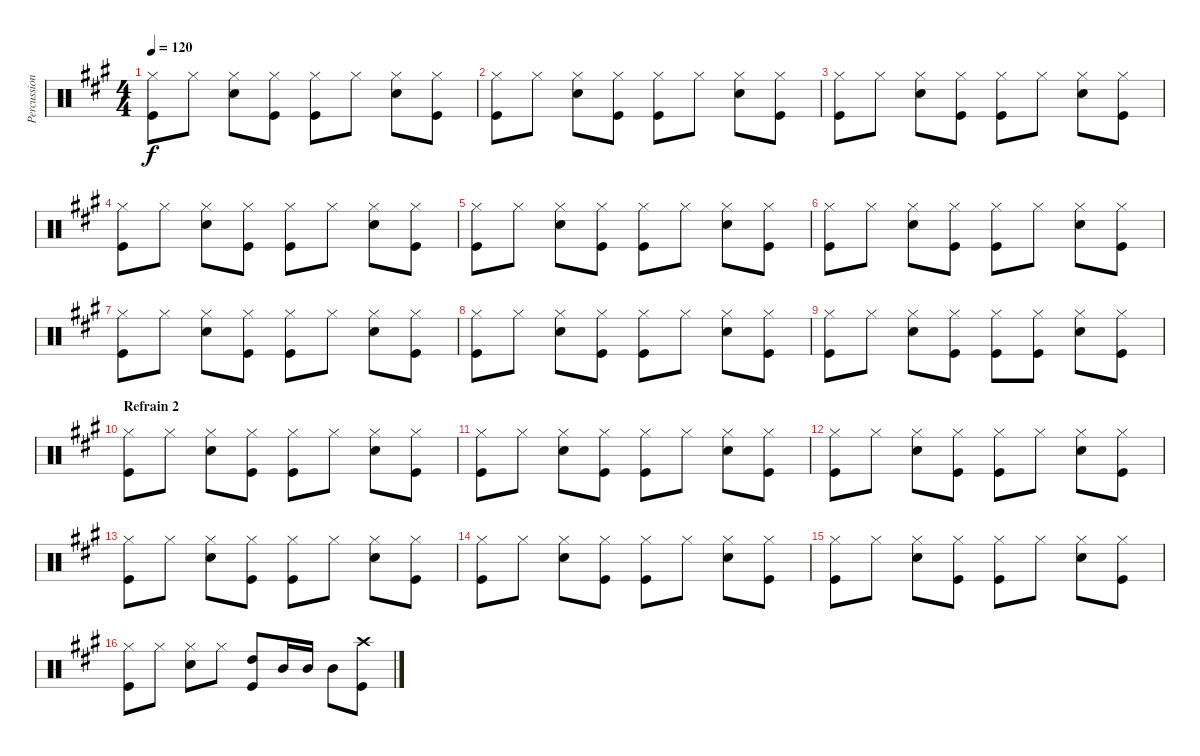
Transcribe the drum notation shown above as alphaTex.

\track ("Percussion" "Percussion") {instrument percussion}
\staff {score}
\articulation defaults
\ts (4 4)
\tempo 120
\clef neutral
\ks a
("Hi-Hat (closed)" "Kick (hit)").8{dy f} "Hi-Hat (closed)".8 ("Hi-Hat (closed)" "Snare (hit) 2").8 ("Hi-Hat (closed)" "Kick (hit)").8 ("Hi-Hat (closed)" "Kick (hit)").8 "Hi-Hat (closed)".8 ("Hi-Hat (closed)" "Snare (hit) 2").8 ("Hi-Hat (closed)" "Kick (hit)").8 |
("Hi-Hat (closed)" "Kick (hit)").8 "Hi-Hat (closed)".8 ("Hi-Hat (closed)" "Snare (hit) 2").8 ("Hi-Hat (closed)" "Kick (hit)").8 ("Hi-Hat (closed)" "Kick (hit)").8 "Hi-Hat (closed)".8 ("Hi-Hat (closed)" "Snare (hit) 2").8 ("Hi-Hat (closed)" "Kick (hit)").8 |
("Hi-Hat (closed)" "Kick (hit)").8 "Hi-Hat (closed)".8 ("Hi-Hat (closed)" "Snare (hit) 2").8 ("Hi-Hat (closed)" "Kick (hit)").8 ("Hi-Hat (closed)" "Kick (hit)").8 "Hi-Hat (closed)".8 ("Hi-Hat (closed)" "Snare (hit) 2").8 ("Hi-Hat (closed)" "Kick (hit)").8 |
("Hi-Hat (closed)" "Kick (hit)").8 "Hi-Hat (closed)".8 ("Hi-Hat (closed)" "Snare (hit) 2").8 ("Hi-Hat (closed)" "Kick (hit)").8 ("Hi-Hat (closed)" "Kick (hit)").8 "Hi-Hat (closed)".8 ("Hi-Hat (closed)" "Snare (hit) 2").8 ("Hi-Hat (closed)" "Kick (hit)").8 |
("Hi-Hat (closed)" "Kick (hit)").8 "Hi-Hat (closed)".8 ("Hi-Hat (closed)" "Snare (hit) 2").8 ("Hi-Hat (closed)" "Kick (hit)").8 ("Hi-Hat (closed)" "Kick (hit)").8 "Hi-Hat (closed)".8 ("Hi-Hat (closed)" "Snare (hit) 2").8 ("Hi-Hat (closed)" "Kick (hit)").8 |
("Hi-Hat (closed)" "Kick (hit)").8 "Hi-Hat (closed)".8 ("Hi-Hat (closed)" "Snare (hit) 2").8 ("Hi-Hat (closed)" "Kick (hit)").8 ("Hi-Hat (closed)" "Kick (hit)").8 "Hi-Hat (closed)".8 ("Hi-Hat (closed)" "Snare (hit) 2").8 ("Hi-Hat (closed)" "Kick (hit)").8 |
("Hi-Hat (closed)" "Kick (hit)").8 "Hi-Hat (closed)".8 ("Hi-Hat (closed)" "Snare (hit) 2").8 ("Hi-Hat (closed)" "Kick (hit)").8 ("Hi-Hat (closed)" "Kick (hit)").8 "Hi-Hat (closed)".8 ("Hi-Hat (closed)" "Snare (hit) 2").8 ("Hi-Hat (closed)" "Kick (hit)").8 |
("Hi-Hat (closed)" "Kick (hit)").8 "Hi-Hat (closed)".8 ("Hi-Hat (closed)" "Snare (hit) 2").8 ("Hi-Hat (closed)" "Kick (hit)").8 ("Hi-Hat (closed)" "Kick (hit)").8 "Hi-Hat (closed)".8 ("Hi-Hat (closed)" "Snare (hit) 2").8 ("Hi-Hat (closed)" "Kick (hit)").8 |
("Hi-Hat (closed)" "Kick (hit)").8 "Hi-Hat (closed)".8 ("Hi-Hat (closed)" "Snare (hit) 2").8 ("Hi-Hat (closed)" "Kick (hit)").8 ("Hi-Hat (closed)" "Kick (hit)").8 ("Hi-Hat (closed)" "Kick (hit)").8 ("Hi-Hat (closed)" "Snare (hit) 2").8 ("Hi-Hat (closed)" "Kick (hit)").8 |
\section ("" "Refrain 2")
("Hi-Hat (closed)" "Kick (hit)").8 "Hi-Hat (closed)".8 ("Hi-Hat (closed)" "Snare (hit) 2").8 ("Hi-Hat (closed)" "Kick (hit)").8 ("Hi-Hat (closed)" "Kick (hit)").8 "Hi-Hat (closed)".8 ("Hi-Hat (closed)" "Snare (hit) 2").8 ("Hi-Hat (closed)" "Kick (hit)").8 |
("Hi-Hat (closed)" "Kick (hit)").8 "Hi-Hat (closed)".8 ("Hi-Hat (closed)" "Snare (hit) 2").8 ("Hi-Hat (closed)" "Kick (hit)").8 ("Hi-Hat (closed)" "Kick (hit)").8 "Hi-Hat (closed)".8 ("Hi-Hat (closed)" "Snare (hit) 2").8 ("Hi-Hat (closed)" "Kick (hit)").8 |
("Hi-Hat (closed)" "Kick (hit)").8 "Hi-Hat (closed)".8 ("Hi-Hat (closed)" "Snare (hit) 2").8 ("Hi-Hat (closed)" "Kick (hit)").8 ("Hi-Hat (closed)" "Kick (hit)").8 "Hi-Hat (closed)".8 ("Hi-Hat (closed)" "Snare (hit) 2").8 ("Hi-Hat (closed)" "Kick (hit)").8 |
("Hi-Hat (closed)" "Kick (hit)").8 "Hi-Hat (closed)".8 ("Hi-Hat (closed)" "Snare (hit) 2").8 ("Hi-Hat (closed)" "Kick (hit)").8 ("Hi-Hat (closed)" "Kick (hit)").8 "Hi-Hat (closed)".8 ("Hi-Hat (closed)" "Snare (hit) 2").8 ("Hi-Hat (closed)" "Kick (hit)").8 |
("Hi-Hat (closed)" "Kick (hit)").8 "Hi-Hat (closed)".8 ("Hi-Hat (closed)" "Snare (hit) 2").8 ("Hi-Hat (closed)" "Kick (hit)").8 ("Hi-Hat (closed)" "Kick (hit)").8 "Hi-Hat (closed)".8 ("Hi-Hat (closed)" "Snare (hit) 2").8 ("Hi-Hat (closed)" "Kick (hit)").8 |
("Hi-Hat (closed)" "Kick (hit)").8 "Hi-Hat (closed)".8 ("Hi-Hat (closed)" "Snare (hit) 2").8 ("Hi-Hat (closed)" "Kick (hit)").8 ("Hi-Hat (closed)" "Kick (hit)").8 "Hi-Hat (closed)".8 ("Hi-Hat (closed)" "Snare (hit) 2").8 ("Hi-Hat (closed)" "Kick (hit)").8 |
("Hi-Hat (closed)" "Kick (hit)").8 "Hi-Hat (closed)".8 ("Hi-Hat (closed)" "Snare (hit) 2").8 "Hi-Hat (closed)".8 ("High Tom (hit)" "Kick (hit)").8 "Mid Tom (hit)".16 "Mid Tom (hit)".16 "Mid Tom (hit)".8 ("Crash high (hit)" "Kick (hit)").8
